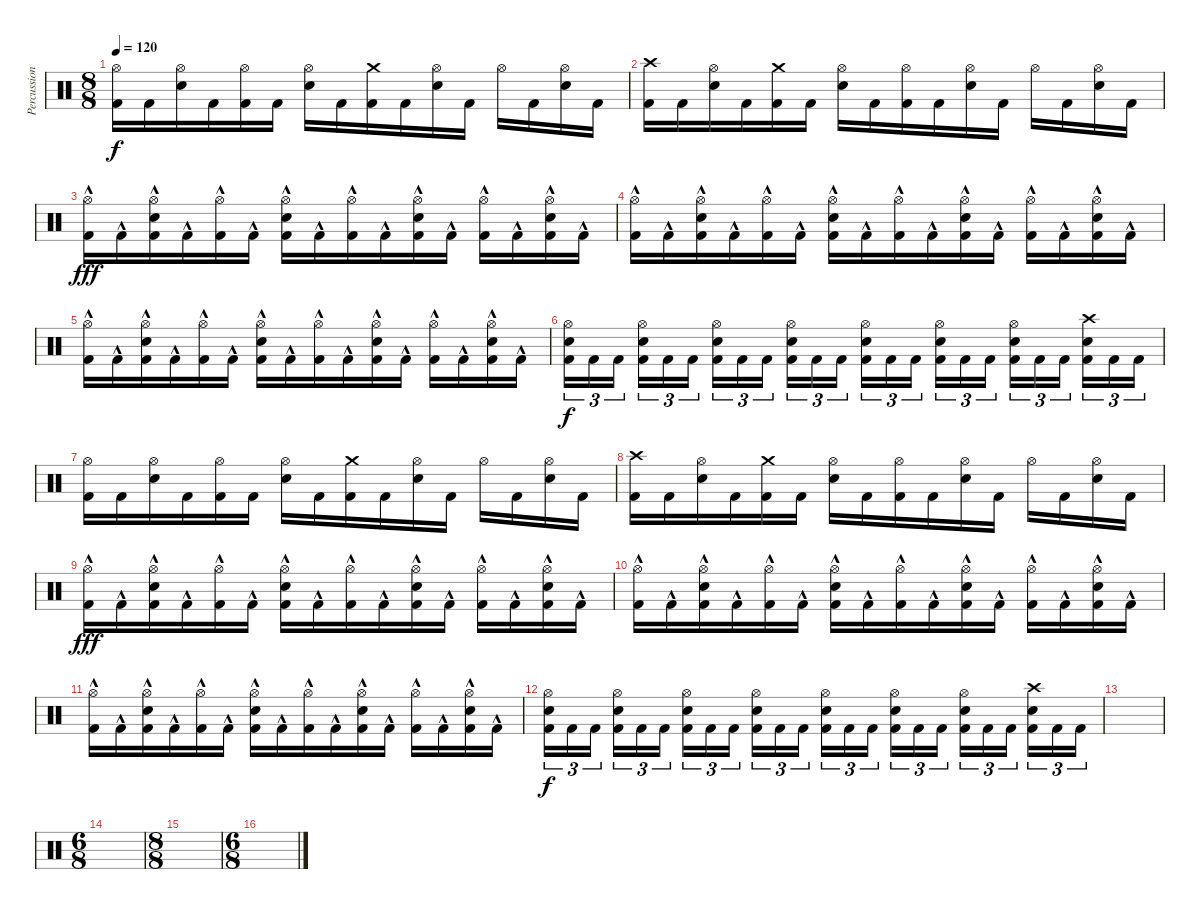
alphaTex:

\track ("Percussion" "Percussion") {instrument percussion}
\staff {score}
\articulation defaults
\ts (8 8)
\tempo 120
\clef neutral
\ks c
("Hi-Hat (open)" "Kick (hit) 2").16{dy f} "Kick (hit) 2".16 ("Hi-Hat (open)" "Snare (hit) 2").16 "Kick (hit) 2".16 ("Hi-Hat (open)" "Kick (hit) 2").16 "Kick (hit) 2".16 ("Hi-Hat (open)" "Snare (hit) 2").16 "Kick (hit) 2".16 ("Crash medium (hit)" "Kick (hit) 2").16 "Kick (hit) 2".16 ("Hi-Hat (open)" "Snare (hit) 2").16 "Kick (hit) 2".16 "Hi-Hat (open)".16 "Kick (hit) 2".16 ("Hi-Hat (open)" "Snare (hit) 2").16 "Kick (hit) 2".16 |
("Crash high (hit)" "Kick (hit) 2").16 "Kick (hit) 2".16 ("Hi-Hat (open)" "Snare (hit) 2").16 "Kick (hit) 2".16 ("Crash medium (hit)" "Kick (hit) 2").16 "Kick (hit) 2".16 ("Hi-Hat (open)" "Snare (hit) 2").16 "Kick (hit) 2".16 ("Hi-Hat (open)" "Kick (hit) 2").16 "Kick (hit) 2".16 ("Hi-Hat (open)" "Snare (hit) 2").16 "Kick (hit) 2".16 "Hi-Hat (open)".16 "Kick (hit) 2".16 ("Hi-Hat (open)" "Snare (hit) 2").16 "Kick (hit) 2".16 |
("Hi-Hat (open)" "Kick (hit) 2"{hac}).16{dy fff} "Kick (hit) 2"{hac}.16 ("Hi-Hat (open)" "Snare (hit) 2" "Kick (hit) 2"{hac}).16 "Kick (hit) 2"{hac}.16 ("Hi-Hat (open)" "Kick (hit) 2"{hac}).16 "Kick (hit) 2"{hac}.16 ("Hi-Hat (open)" "Snare (hit) 2" "Kick (hit) 2"{hac}).16 "Kick (hit) 2"{hac}.16 ("Hi-Hat (open)" "Kick (hit) 2"{hac}).16 "Kick (hit) 2"{hac}.16 ("Hi-Hat (open)" "Snare (hit) 2" "Kick (hit) 2"{hac}).16 "Kick (hit) 2"{hac}.16 ("Hi-Hat (open)" "Kick (hit) 2"{hac}).16 "Kick (hit) 2"{hac}.16 ("Hi-Hat (open)" "Snare (hit) 2" "Kick (hit) 2"{hac}).16 "Kick (hit) 2"{hac}.16 |
("Hi-Hat (open)" "Kick (hit) 2"{hac}).16 "Kick (hit) 2"{hac}.16 ("Hi-Hat (open)" "Snare (hit) 2" "Kick (hit) 2"{hac}).16 "Kick (hit) 2"{hac}.16 ("Hi-Hat (open)" "Kick (hit) 2"{hac}).16 "Kick (hit) 2"{hac}.16 ("Hi-Hat (open)" "Snare (hit) 2" "Kick (hit) 2"{hac}).16 "Kick (hit) 2"{hac}.16 ("Hi-Hat (open)" "Kick (hit) 2"{hac}).16 "Kick (hit) 2"{hac}.16 ("Hi-Hat (open)" "Snare (hit) 2" "Kick (hit) 2"{hac}).16 "Kick (hit) 2"{hac}.16 ("Hi-Hat (open)" "Kick (hit) 2"{hac}).16 "Kick (hit) 2"{hac}.16 ("Hi-Hat (open)" "Snare (hit) 2" "Kick (hit) 2"{hac}).16 "Kick (hit) 2"{hac}.16 |
("Hi-Hat (open)" "Kick (hit) 2"{hac}).16 "Kick (hit) 2"{hac}.16 ("Hi-Hat (open)" "Snare (hit) 2" "Kick (hit) 2"{hac}).16 "Kick (hit) 2"{hac}.16 ("Hi-Hat (open)" "Kick (hit) 2"{hac}).16 "Kick (hit) 2"{hac}.16 ("Hi-Hat (open)" "Snare (hit) 2" "Kick (hit) 2"{hac}).16 "Kick (hit) 2"{hac}.16 ("Hi-Hat (open)" "Kick (hit) 2"{hac}).16 "Kick (hit) 2"{hac}.16 ("Hi-Hat (open)" "Snare (hit) 2" "Kick (hit) 2"{hac}).16 "Kick (hit) 2"{hac}.16 ("Hi-Hat (open)" "Kick (hit) 2"{hac}).16 "Kick (hit) 2"{hac}.16 ("Hi-Hat (open)" "Snare (hit) 2" "Kick (hit) 2"{hac}).16 "Kick (hit) 2"{hac}.16 |
("Hi-Hat (open)" "Snare (hit) 2" "Kick (hit) 2").16{tu (3 2) dy f} "Kick (hit) 2".16{tu (3 2)} "Kick (hit) 2".16{tu (3 2)} ("Hi-Hat (open)" "Snare (hit) 2" "Kick (hit) 2").16{tu (3 2)} "Kick (hit) 2".16{tu (3 2)} "Kick (hit) 2".16{tu (3 2)} ("Hi-Hat (open)" "Snare (hit) 2" "Kick (hit) 2").16{tu (3 2)} "Kick (hit) 2".16{tu (3 2)} "Kick (hit) 2".16{tu (3 2)} ("Hi-Hat (open)" "Snare (hit) 2" "Kick (hit) 2").16{tu (3 2)} "Kick (hit) 2".16{tu (3 2)} "Kick (hit) 2".16{tu (3 2)} ("Hi-Hat (open)" "Snare (hit) 2" "Kick (hit) 2").16{tu (3 2)} "Kick (hit) 2".16{tu (3 2)} "Kick (hit) 2".16{tu (3 2)} ("Hi-Hat (open)" "Snare (hit) 2" "Kick (hit) 2").16{tu (3 2)} "Kick (hit) 2".16{tu (3 2)} "Kick (hit) 2".16{tu (3 2)} ("Hi-Hat (open)" "Snare (hit) 2" "Kick (hit) 2").16{tu (3 2)} "Kick (hit) 2".16{tu (3 2)} "Kick (hit) 2".16{tu (3 2)} ("Crash high (hit)" "Snare (hit) 2" "Kick (hit) 2").16{tu (3 2)} "Kick (hit) 2".16{tu (3 2)} "Kick (hit) 2".16{tu (3 2)} |
("Hi-Hat (open)" "Kick (hit) 2").16 "Kick (hit) 2".16 ("Hi-Hat (open)" "Snare (hit) 2").16 "Kick (hit) 2".16 ("Hi-Hat (open)" "Kick (hit) 2").16 "Kick (hit) 2".16 ("Hi-Hat (open)" "Snare (hit) 2").16 "Kick (hit) 2".16 ("Crash medium (hit)" "Kick (hit) 2").16 "Kick (hit) 2".16 ("Hi-Hat (open)" "Snare (hit) 2").16 "Kick (hit) 2".16 "Hi-Hat (open)".16 "Kick (hit) 2".16 ("Hi-Hat (open)" "Snare (hit) 2").16 "Kick (hit) 2".16 |
("Crash high (hit)" "Kick (hit) 2").16 "Kick (hit) 2".16 ("Hi-Hat (open)" "Snare (hit) 2").16 "Kick (hit) 2".16 ("Crash medium (hit)" "Kick (hit) 2").16 "Kick (hit) 2".16 ("Hi-Hat (open)" "Snare (hit) 2").16 "Kick (hit) 2".16 ("Hi-Hat (open)" "Kick (hit) 2").16 "Kick (hit) 2".16 ("Hi-Hat (open)" "Snare (hit) 2").16 "Kick (hit) 2".16 "Hi-Hat (open)".16 "Kick (hit) 2".16 ("Hi-Hat (open)" "Snare (hit) 2").16 "Kick (hit) 2".16 |
("Hi-Hat (open)" "Kick (hit) 2"{hac}).16{dy fff} "Kick (hit) 2"{hac}.16 ("Hi-Hat (open)" "Snare (hit) 2" "Kick (hit) 2"{hac}).16 "Kick (hit) 2"{hac}.16 ("Hi-Hat (open)" "Kick (hit) 2"{hac}).16 "Kick (hit) 2"{hac}.16 ("Hi-Hat (open)" "Snare (hit) 2" "Kick (hit) 2"{hac}).16 "Kick (hit) 2"{hac}.16 ("Hi-Hat (open)" "Kick (hit) 2"{hac}).16 "Kick (hit) 2"{hac}.16 ("Hi-Hat (open)" "Snare (hit) 2" "Kick (hit) 2"{hac}).16 "Kick (hit) 2"{hac}.16 ("Hi-Hat (open)" "Kick (hit) 2"{hac}).16 "Kick (hit) 2"{hac}.16 ("Hi-Hat (open)" "Snare (hit) 2" "Kick (hit) 2"{hac}).16 "Kick (hit) 2"{hac}.16 |
("Hi-Hat (open)" "Kick (hit) 2"{hac}).16 "Kick (hit) 2"{hac}.16 ("Hi-Hat (open)" "Snare (hit) 2" "Kick (hit) 2"{hac}).16 "Kick (hit) 2"{hac}.16 ("Hi-Hat (open)" "Kick (hit) 2"{hac}).16 "Kick (hit) 2"{hac}.16 ("Hi-Hat (open)" "Snare (hit) 2" "Kick (hit) 2"{hac}).16 "Kick (hit) 2"{hac}.16 ("Hi-Hat (open)" "Kick (hit) 2"{hac}).16 "Kick (hit) 2"{hac}.16 ("Hi-Hat (open)" "Snare (hit) 2" "Kick (hit) 2"{hac}).16 "Kick (hit) 2"{hac}.16 ("Hi-Hat (open)" "Kick (hit) 2"{hac}).16 "Kick (hit) 2"{hac}.16 ("Hi-Hat (open)" "Snare (hit) 2" "Kick (hit) 2"{hac}).16 "Kick (hit) 2"{hac}.16 |
("Hi-Hat (open)" "Kick (hit) 2"{hac}).16 "Kick (hit) 2"{hac}.16 ("Hi-Hat (open)" "Snare (hit) 2" "Kick (hit) 2"{hac}).16 "Kick (hit) 2"{hac}.16 ("Hi-Hat (open)" "Kick (hit) 2"{hac}).16 "Kick (hit) 2"{hac}.16 ("Hi-Hat (open)" "Snare (hit) 2" "Kick (hit) 2"{hac}).16 "Kick (hit) 2"{hac}.16 ("Hi-Hat (open)" "Kick (hit) 2"{hac}).16 "Kick (hit) 2"{hac}.16 ("Hi-Hat (open)" "Snare (hit) 2" "Kick (hit) 2"{hac}).16 "Kick (hit) 2"{hac}.16 ("Hi-Hat (open)" "Kick (hit) 2"{hac}).16 "Kick (hit) 2"{hac}.16 ("Hi-Hat (open)" "Snare (hit) 2" "Kick (hit) 2"{hac}).16 "Kick (hit) 2"{hac}.16 |
("Hi-Hat (open)" "Snare (hit) 2" "Kick (hit) 2").16{tu (3 2) dy f} "Kick (hit) 2".16{tu (3 2)} "Kick (hit) 2".16{tu (3 2)} ("Hi-Hat (open)" "Snare (hit) 2" "Kick (hit) 2").16{tu (3 2)} "Kick (hit) 2".16{tu (3 2)} "Kick (hit) 2".16{tu (3 2)} ("Hi-Hat (open)" "Snare (hit) 2" "Kick (hit) 2").16{tu (3 2)} "Kick (hit) 2".16{tu (3 2)} "Kick (hit) 2".16{tu (3 2)} ("Hi-Hat (open)" "Snare (hit) 2" "Kick (hit) 2").16{tu (3 2)} "Kick (hit) 2".16{tu (3 2)} "Kick (hit) 2".16{tu (3 2)} ("Hi-Hat (open)" "Snare (hit) 2" "Kick (hit) 2").16{tu (3 2)} "Kick (hit) 2".16{tu (3 2)} "Kick (hit) 2".16{tu (3 2)} ("Hi-Hat (open)" "Snare (hit) 2" "Kick (hit) 2").16{tu (3 2)} "Kick (hit) 2".16{tu (3 2)} "Kick (hit) 2".16{tu (3 2)} ("Hi-Hat (open)" "Snare (hit) 2" "Kick (hit) 2").16{tu (3 2)} "Kick (hit) 2".16{tu (3 2)} "Kick (hit) 2".16{tu (3 2)} ("Crash high (hit)" "Snare (hit) 2" "Kick (hit) 2").16{tu (3 2)} "Kick (hit) 2".16{tu (3 2)} "Kick (hit) 2".16{tu (3 2)} |
|
\ts (6 8)
|
\ts (8 8)
|
\ts (6 8)
